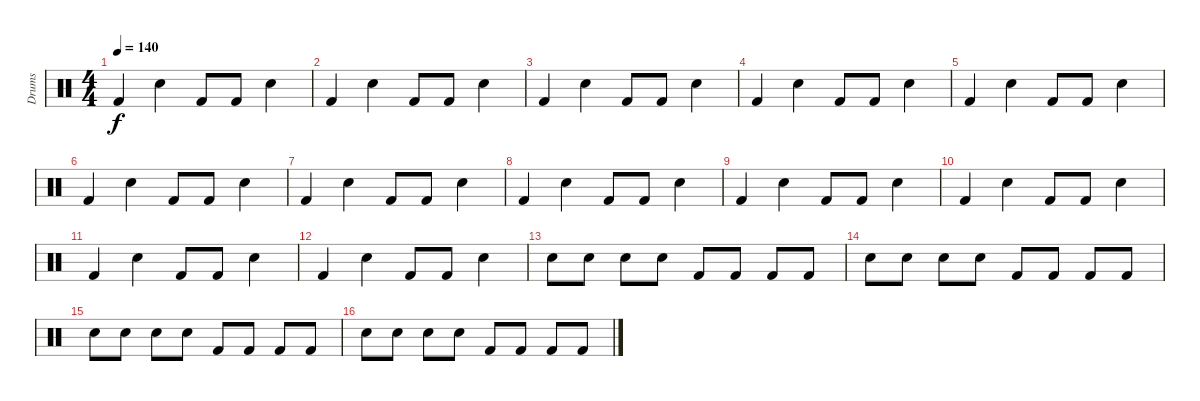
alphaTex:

\track ("Drums" "Drums") {instrument percussion}
\staff {score}
\articulation defaults
\ts (4 4)
\tempo 140
\clef neutral
\ks c "Kick (hit) 2".4{dy f} "Snare (hit) 2".4 "Kick (hit) 2".8 "Kick (hit) 2".8 "Snare (hit) 2".4
|
"Kick (hit) 2".4 "Snare (hit) 2".4 "Kick (hit) 2".8 "Kick (hit) 2".8 "Snare (hit) 2".4 |
"Kick (hit) 2".4 "Snare (hit) 2".4 "Kick (hit) 2".8 "Kick (hit) 2".8 "Snare (hit) 2".4 |
"Kick (hit) 2".4 "Snare (hit) 2".4 "Kick (hit) 2".8 "Kick (hit) 2".8 "Snare (hit) 2".4 |
"Kick (hit) 2".4 "Snare (hit) 2".4 "Kick (hit) 2".8 "Kick (hit) 2".8 "Snare (hit) 2".4 |
"Kick (hit) 2".4 "Snare (hit) 2".4 "Kick (hit) 2".8 "Kick (hit) 2".8 "Snare (hit) 2".4 |
"Kick (hit) 2".4 "Snare (hit) 2".4 "Kick (hit) 2".8 "Kick (hit) 2".8 "Snare (hit) 2".4 |
"Kick (hit) 2".4 "Snare (hit) 2".4 "Kick (hit) 2".8 "Kick (hit) 2".8 "Snare (hit) 2".4 |
"Kick (hit) 2".4 "Snare (hit) 2".4 "Kick (hit) 2".8 "Kick (hit) 2".8 "Snare (hit) 2".4 |
"Kick (hit) 2".4 "Snare (hit) 2".4 "Kick (hit) 2".8 "Kick (hit) 2".8 "Snare (hit) 2".4 |
"Kick (hit) 2".4 "Snare (hit) 2".4 "Kick (hit) 2".8 "Kick (hit) 2".8 "Snare (hit) 2".4 |
"Kick (hit) 2".4 "Snare (hit) 2".4 "Kick (hit) 2".8 "Kick (hit) 2".8 "Snare (hit) 2".4 |
"Snare (hit) 2".8 "Snare (hit) 2".8 "Snare (hit) 2".8 "Snare (hit) 2".8 "Kick (hit) 2".8 "Kick (hit) 2".8 "Kick (hit) 2".8 "Kick (hit) 2".8 |
"Snare (hit) 2".8 "Snare (hit) 2".8 "Snare (hit) 2".8 "Snare (hit) 2".8 "Kick (hit) 2".8 "Kick (hit) 2".8 "Kick (hit) 2".8 "Kick (hit) 2".8 |
"Snare (hit) 2".8 "Snare (hit) 2".8 "Snare (hit) 2".8 "Snare (hit) 2".8 "Kick (hit) 2".8 "Kick (hit) 2".8 "Kick (hit) 2".8 "Kick (hit) 2".8 |
"Snare (hit) 2".8 "Snare (hit) 2".8 "Snare (hit) 2".8 "Snare (hit) 2".8 "Kick (hit) 2".8 "Kick (hit) 2".8 "Kick (hit) 2".8 "Kick (hit) 2".8
